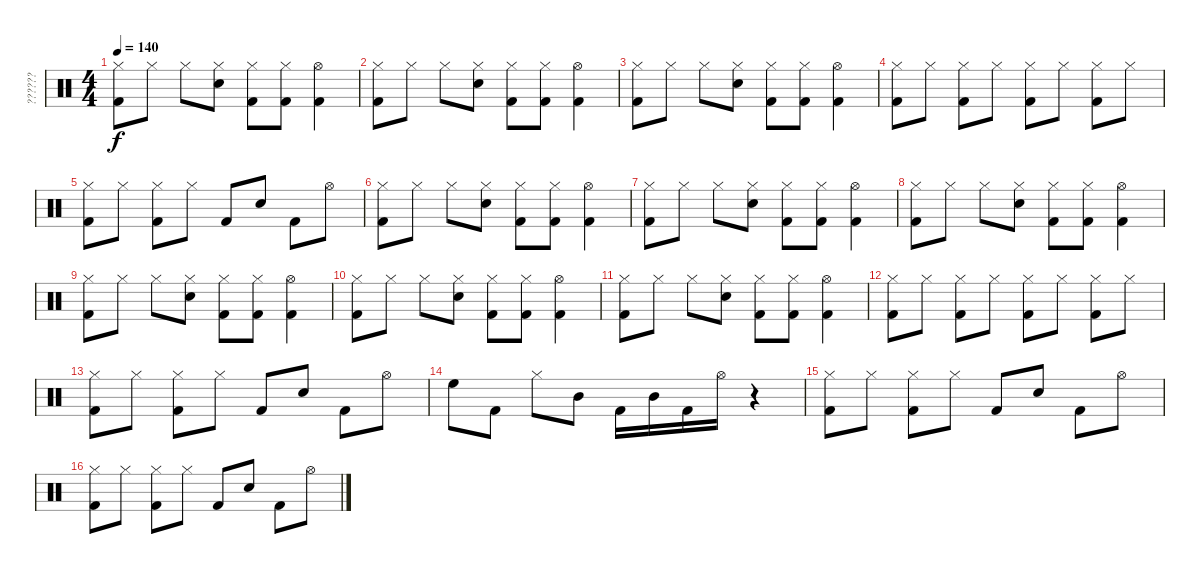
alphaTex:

\track ("??????" "??????") {instrument percussion}
\staff {score}
\articulation defaults
\ts (4 4)
\tempo 140
\clef neutral
\ks c
("Hi-Hat (closed)" "Kick (hit) 2").8{dy f} "Hi-Hat (closed)".8 "Hi-Hat (closed)".8 ("Hi-Hat (closed)" "Snare (hit) 2").8 ("Hi-Hat (closed)" "Kick (hit) 2").8 ("Hi-Hat (closed)" "Kick (hit) 2").8 ("Hi-Hat (open)" "Kick (hit) 2").4 |
("Hi-Hat (closed)" "Kick (hit) 2").8 "Hi-Hat (closed)".8 "Hi-Hat (closed)".8 ("Hi-Hat (closed)" "Snare (hit) 2").8 ("Hi-Hat (closed)" "Kick (hit) 2").8 ("Hi-Hat (closed)" "Kick (hit) 2").8 ("Hi-Hat (open)" "Kick (hit) 2").4 |
("Hi-Hat (closed)" "Kick (hit) 2").8 "Hi-Hat (closed)".8 "Hi-Hat (closed)".8 ("Hi-Hat (closed)" "Snare (hit) 2").8 ("Hi-Hat (closed)" "Kick (hit) 2").8 ("Hi-Hat (closed)" "Kick (hit) 2").8 ("Hi-Hat (open)" "Kick (hit) 2").4 |
("Hi-Hat (closed)" "Kick (hit) 2").8 "Hi-Hat (closed)".8 ("Hi-Hat (closed)" "Kick (hit) 2").8 "Hi-Hat (closed)".8 ("Hi-Hat (closed)" "Kick (hit) 2").8 "Hi-Hat (closed)".8 ("Hi-Hat (closed)" "Kick (hit) 2").8 "Hi-Hat (closed)".8 |
("Hi-Hat (closed)" "Kick (hit) 2").8 "Hi-Hat (closed)".8 ("Hi-Hat (closed)" "Kick (hit) 2").8 "Hi-Hat (closed)".8 "Kick (hit) 2".8 "Snare (hit) 2".8 "Kick (hit) 2".8 "Hi-Hat (open)".8 |
("Hi-Hat (closed)" "Kick (hit) 2").8 "Hi-Hat (closed)".8 "Hi-Hat (closed)".8 ("Hi-Hat (closed)" "Snare (hit) 2").8 ("Hi-Hat (closed)" "Kick (hit) 2").8 ("Hi-Hat (closed)" "Kick (hit) 2").8 ("Hi-Hat (open)" "Kick (hit) 2").4 |
("Hi-Hat (closed)" "Kick (hit) 2").8 "Hi-Hat (closed)".8 "Hi-Hat (closed)".8 ("Hi-Hat (closed)" "Snare (hit) 2").8 ("Hi-Hat (closed)" "Kick (hit) 2").8 ("Hi-Hat (closed)" "Kick (hit) 2").8 ("Hi-Hat (open)" "Kick (hit) 2").4 |
("Hi-Hat (closed)" "Kick (hit) 2").8 "Hi-Hat (closed)".8 "Hi-Hat (closed)".8 ("Hi-Hat (closed)" "Snare (hit) 2").8 ("Hi-Hat (closed)" "Kick (hit) 2").8 ("Hi-Hat (closed)" "Kick (hit) 2").8 ("Hi-Hat (open)" "Kick (hit) 2").4 |
("Hi-Hat (closed)" "Kick (hit) 2").8 "Hi-Hat (closed)".8 "Hi-Hat (closed)".8 ("Hi-Hat (closed)" "Snare (hit) 2").8 ("Hi-Hat (closed)" "Kick (hit) 2").8 ("Hi-Hat (closed)" "Kick (hit) 2").8 ("Hi-Hat (open)" "Kick (hit) 2").4 |
("Hi-Hat (closed)" "Kick (hit) 2").8 "Hi-Hat (closed)".8 "Hi-Hat (closed)".8 ("Hi-Hat (closed)" "Snare (hit) 2").8 ("Hi-Hat (closed)" "Kick (hit) 2").8 ("Hi-Hat (closed)" "Kick (hit) 2").8 ("Hi-Hat (open)" "Kick (hit) 2").4 |
("Hi-Hat (closed)" "Kick (hit) 2").8 "Hi-Hat (closed)".8 "Hi-Hat (closed)".8 ("Hi-Hat (closed)" "Snare (hit) 2").8 ("Hi-Hat (closed)" "Kick (hit) 2").8 ("Hi-Hat (closed)" "Kick (hit) 2").8 ("Hi-Hat (open)" "Kick (hit) 2").4 |
("Hi-Hat (closed)" "Kick (hit) 2").8 "Hi-Hat (closed)".8 ("Hi-Hat (closed)" "Kick (hit) 2").8 "Hi-Hat (closed)".8 ("Hi-Hat (closed)" "Kick (hit) 2").8 "Hi-Hat (closed)".8 ("Hi-Hat (closed)" "Kick (hit) 2").8 "Hi-Hat (closed)".8 |
("Hi-Hat (closed)" "Kick (hit) 2").8 "Hi-Hat (closed)".8 ("Hi-Hat (closed)" "Kick (hit) 2").8 "Hi-Hat (closed)".8 "Kick (hit) 2".8 "Snare (hit) 2".8 "Kick (hit) 2".8 "Hi-Hat (open)".8 |
"High Floor Tom (hit)".8 "Kick (hit) 2".8 "Hi-Hat (closed)".8 "Mid Tom (hit)".8 "Kick (hit) 2".16 "Mid Tom (hit)".16 "Kick (hit) 2".16 "Hi-Hat (open)".16 r.4 |
("Hi-Hat (closed)" "Kick (hit) 2").8 "Hi-Hat (closed)".8 ("Hi-Hat (closed)" "Kick (hit) 2").8 "Hi-Hat (closed)".8 "Kick (hit) 2".8 "Snare (hit) 2".8 "Kick (hit) 2".8 "Hi-Hat (open)".8 |
("Hi-Hat (closed)" "Kick (hit) 2").8 "Hi-Hat (closed)".8 ("Hi-Hat (closed)" "Kick (hit) 2").8 "Hi-Hat (closed)".8 "Kick (hit) 2".8 "Snare (hit) 2".8 "Kick (hit) 2".8 "Hi-Hat (open)".8
